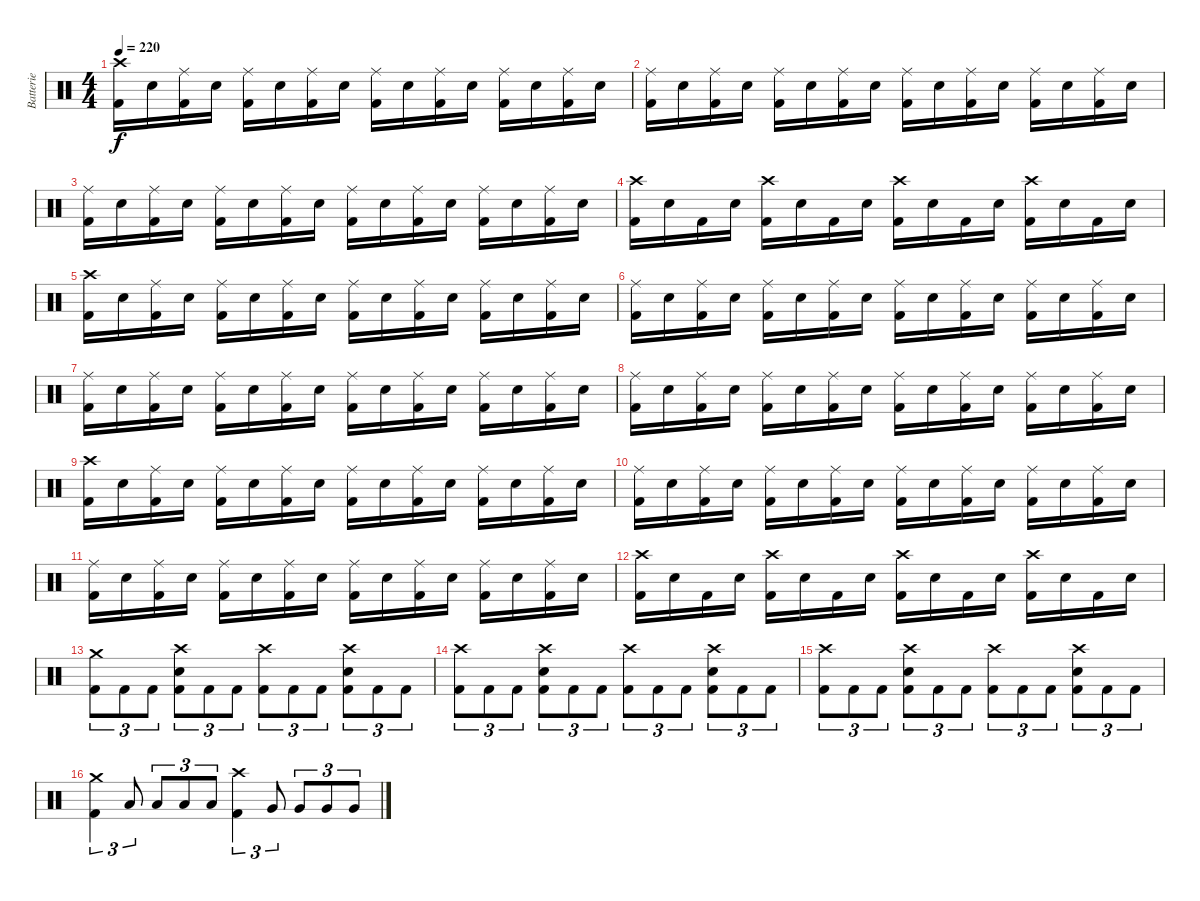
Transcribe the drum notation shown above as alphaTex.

\track ("Batterie" "Batterie") {instrument percussion}
\staff {score}
\articulation defaults
\ts (4 4)
\tempo 220
\clef neutral
\ks c
("Crash high (hit)" "Kick (hit) 2").16{dy f} "Electric Snare (hit)".16 ("Ride (middle)" "Kick (hit) 2").16 "Electric Snare (hit)".16 ("Ride (middle)" "Kick (hit) 2").16 "Electric Snare (hit)".16 ("Ride (middle)" "Kick (hit) 2").16 "Electric Snare (hit)".16 ("Ride (middle)" "Kick (hit) 2").16 "Electric Snare (hit)".16 ("Ride (middle)" "Kick (hit) 2").16 "Electric Snare (hit)".16 ("Ride (middle)" "Kick (hit) 2").16 "Electric Snare (hit)".16 ("Ride (middle)" "Kick (hit) 2").16 "Electric Snare (hit)".16 |
("Ride (middle)" "Kick (hit) 2").16 "Electric Snare (hit)".16 ("Ride (middle)" "Kick (hit) 2").16 "Electric Snare (hit)".16 ("Ride (middle)" "Kick (hit) 2").16 "Electric Snare (hit)".16 ("Ride (middle)" "Kick (hit) 2").16 "Electric Snare (hit)".16 ("Ride (middle)" "Kick (hit) 2").16 "Electric Snare (hit)".16 ("Ride (middle)" "Kick (hit) 2").16 "Electric Snare (hit)".16 ("Ride (middle)" "Kick (hit) 2").16 "Electric Snare (hit)".16 ("Ride (middle)" "Kick (hit) 2").16 "Electric Snare (hit)".16 |
("Ride (middle)" "Kick (hit) 2").16 "Electric Snare (hit)".16 ("Ride (middle)" "Kick (hit) 2").16 "Electric Snare (hit)".16 ("Ride (middle)" "Kick (hit) 2").16 "Electric Snare (hit)".16 ("Ride (middle)" "Kick (hit) 2").16 "Electric Snare (hit)".16 ("Ride (middle)" "Kick (hit) 2").16 "Electric Snare (hit)".16 ("Ride (middle)" "Kick (hit) 2").16 "Electric Snare (hit)".16 ("Ride (middle)" "Kick (hit) 2").16 "Electric Snare (hit)".16 ("Ride (middle)" "Kick (hit) 2").16 "Electric Snare (hit)".16 |
("Crash high (hit)" "Kick (hit) 2").16 "Electric Snare (hit)".16 "Kick (hit) 2".16 "Electric Snare (hit)".16 ("Crash high (hit)" "Kick (hit) 2").16 "Electric Snare (hit)".16 "Kick (hit) 2".16 "Electric Snare (hit)".16 ("Crash high (hit)" "Kick (hit) 2").16 "Electric Snare (hit)".16 "Kick (hit) 2".16 "Electric Snare (hit)".16 ("Crash high (hit)" "Kick (hit) 2").16 "Electric Snare (hit)".16 "Kick (hit) 2".16 "Electric Snare (hit)".16 |
("Crash high (hit)" "Kick (hit) 2").16 "Electric Snare (hit)".16 ("Ride (middle)" "Kick (hit) 2").16 "Electric Snare (hit)".16 ("Ride (middle)" "Kick (hit) 2").16 "Electric Snare (hit)".16 ("Ride (middle)" "Kick (hit) 2").16 "Electric Snare (hit)".16 ("Ride (middle)" "Kick (hit) 2").16 "Electric Snare (hit)".16 ("Ride (middle)" "Kick (hit) 2").16 "Electric Snare (hit)".16 ("Ride (middle)" "Kick (hit) 2").16 "Electric Snare (hit)".16 ("Ride (middle)" "Kick (hit) 2").16 "Electric Snare (hit)".16 |
("Ride (middle)" "Kick (hit) 2").16 "Electric Snare (hit)".16 ("Ride (middle)" "Kick (hit) 2").16 "Electric Snare (hit)".16 ("Ride (middle)" "Kick (hit) 2").16 "Electric Snare (hit)".16 ("Ride (middle)" "Kick (hit) 2").16 "Electric Snare (hit)".16 ("Ride (middle)" "Kick (hit) 2").16 "Electric Snare (hit)".16 ("Ride (middle)" "Kick (hit) 2").16 "Electric Snare (hit)".16 ("Ride (middle)" "Kick (hit) 2").16 "Electric Snare (hit)".16 ("Ride (middle)" "Kick (hit) 2").16 "Electric Snare (hit)".16 |
("Ride (middle)" "Kick (hit) 2").16 "Electric Snare (hit)".16 ("Ride (middle)" "Kick (hit) 2").16 "Electric Snare (hit)".16 ("Ride (middle)" "Kick (hit) 2").16 "Electric Snare (hit)".16 ("Ride (middle)" "Kick (hit) 2").16 "Electric Snare (hit)".16 ("Ride (middle)" "Kick (hit) 2").16 "Electric Snare (hit)".16 ("Ride (middle)" "Kick (hit) 2").16 "Electric Snare (hit)".16 ("Ride (middle)" "Kick (hit) 2").16 "Electric Snare (hit)".16 ("Ride (middle)" "Kick (hit) 2").16 "Electric Snare (hit)".16 |
("Ride (middle)" "Kick (hit) 2").16 "Electric Snare (hit)".16 ("Ride (middle)" "Kick (hit) 2").16 "Electric Snare (hit)".16 ("Ride (middle)" "Kick (hit) 2").16 "Electric Snare (hit)".16 ("Ride (middle)" "Kick (hit) 2").16 "Electric Snare (hit)".16 ("Ride (middle)" "Kick (hit) 2").16 "Electric Snare (hit)".16 ("Ride (middle)" "Kick (hit) 2").16 "Electric Snare (hit)".16 ("Ride (middle)" "Kick (hit) 2").16 "Electric Snare (hit)".16 ("Ride (middle)" "Kick (hit) 2").16 "Electric Snare (hit)".16 |
("Crash high (hit)" "Kick (hit) 2").16 "Electric Snare (hit)".16 ("Ride (middle)" "Kick (hit) 2").16 "Electric Snare (hit)".16 ("Ride (middle)" "Kick (hit) 2").16 "Electric Snare (hit)".16 ("Ride (middle)" "Kick (hit) 2").16 "Electric Snare (hit)".16 ("Ride (middle)" "Kick (hit) 2").16 "Electric Snare (hit)".16 ("Ride (middle)" "Kick (hit) 2").16 "Electric Snare (hit)".16 ("Ride (middle)" "Kick (hit) 2").16 "Electric Snare (hit)".16 ("Ride (middle)" "Kick (hit) 2").16 "Electric Snare (hit)".16 |
("Ride (middle)" "Kick (hit) 2").16 "Electric Snare (hit)".16 ("Ride (middle)" "Kick (hit) 2").16 "Electric Snare (hit)".16 ("Ride (middle)" "Kick (hit) 2").16 "Electric Snare (hit)".16 ("Ride (middle)" "Kick (hit) 2").16 "Electric Snare (hit)".16 ("Ride (middle)" "Kick (hit) 2").16 "Electric Snare (hit)".16 ("Ride (middle)" "Kick (hit) 2").16 "Electric Snare (hit)".16 ("Ride (middle)" "Kick (hit) 2").16 "Electric Snare (hit)".16 ("Ride (middle)" "Kick (hit) 2").16 "Electric Snare (hit)".16 |
("Ride (middle)" "Kick (hit) 2").16 "Electric Snare (hit)".16 ("Ride (middle)" "Kick (hit) 2").16 "Electric Snare (hit)".16 ("Ride (middle)" "Kick (hit) 2").16 "Electric Snare (hit)".16 ("Ride (middle)" "Kick (hit) 2").16 "Electric Snare (hit)".16 ("Ride (middle)" "Kick (hit) 2").16 "Electric Snare (hit)".16 ("Ride (middle)" "Kick (hit) 2").16 "Electric Snare (hit)".16 ("Ride (middle)" "Kick (hit) 2").16 "Electric Snare (hit)".16 ("Ride (middle)" "Kick (hit) 2").16 "Electric Snare (hit)".16 |
("Crash high (hit)" "Kick (hit) 2").16 "Electric Snare (hit)".16 "Kick (hit) 2".16 "Electric Snare (hit)".16 ("Crash high (hit)" "Kick (hit) 2").16 "Electric Snare (hit)".16 "Kick (hit) 2".16 "Electric Snare (hit)".16 ("Crash high (hit)" "Kick (hit) 2").16 "Electric Snare (hit)".16 "Kick (hit) 2".16 "Electric Snare (hit)".16 ("Crash high (hit)" "Kick (hit) 2").16 "Electric Snare (hit)".16 "Kick (hit) 2".16 "Electric Snare (hit)".16 |
("Crash medium (hit)" "Kick (hit) 2").8{tu (3 2)} "Kick (hit) 2".8{tu (3 2)} "Kick (hit) 2".8{tu (3 2)} ("Crash high (hit)" "Electric Snare (hit)" "Kick (hit) 2").8{tu (3 2)} "Kick (hit) 2".8{tu (3 2)} "Kick (hit) 2".8{tu (3 2)} ("Crash high (hit)" "Kick (hit) 2").8{tu (3 2)} "Kick (hit) 2".8{tu (3 2)} "Kick (hit) 2".8{tu (3 2)} ("Crash high (hit)" "Electric Snare (hit)" "Kick (hit) 2").8{tu (3 2)} "Kick (hit) 2".8{tu (3 2)} "Kick (hit) 2".8{tu (3 2)} |
("Crash high (hit)" "Kick (hit) 2").8{tu (3 2)} "Kick (hit) 2".8{tu (3 2)} "Kick (hit) 2".8{tu (3 2)} ("Crash high (hit)" "Electric Snare (hit)" "Kick (hit) 2").8{tu (3 2)} "Kick (hit) 2".8{tu (3 2)} "Kick (hit) 2".8{tu (3 2)} ("Crash high (hit)" "Kick (hit) 2").8{tu (3 2)} "Kick (hit) 2".8{tu (3 2)} "Kick (hit) 2".8{tu (3 2)} ("Crash high (hit)" "Electric Snare (hit)" "Kick (hit) 2").8{tu (3 2)} "Kick (hit) 2".8{tu (3 2)} "Kick (hit) 2".8{tu (3 2)} |
("Crash high (hit)" "Kick (hit) 2").8{tu (3 2)} "Kick (hit) 2".8{tu (3 2)} "Kick (hit) 2".8{tu (3 2)} ("Crash high (hit)" "Electric Snare (hit)" "Kick (hit) 2").8{tu (3 2)} "Kick (hit) 2".8{tu (3 2)} "Kick (hit) 2".8{tu (3 2)} ("Crash high (hit)" "Kick (hit) 2").8{tu (3 2)} "Kick (hit) 2".8{tu (3 2)} "Kick (hit) 2".8{tu (3 2)} ("Crash high (hit)" "Electric Snare (hit)" "Kick (hit) 2").8{tu (3 2)} "Kick (hit) 2".8{tu (3 2)} "Kick (hit) 2".8{tu (3 2)} |
("Crash medium (hit)" "Kick (hit) 2").4{tu (3 2)} "Low Tom (hit)".8{tu (3 2)} "Low Tom (hit)".8{tu (3 2)} "Low Tom (hit)".8{tu (3 2)} "Low Tom (hit)".8{tu (3 2)} ("Crash high (hit)" "Kick (hit) 2").4{tu (3 2)} "Very Low Tom (hit)".8{tu (3 2)} "Very Low Tom (hit)".8{tu (3 2)} "Very Low Tom (hit)".8{tu (3 2)} "Very Low Tom (hit)".8{tu (3 2)}
